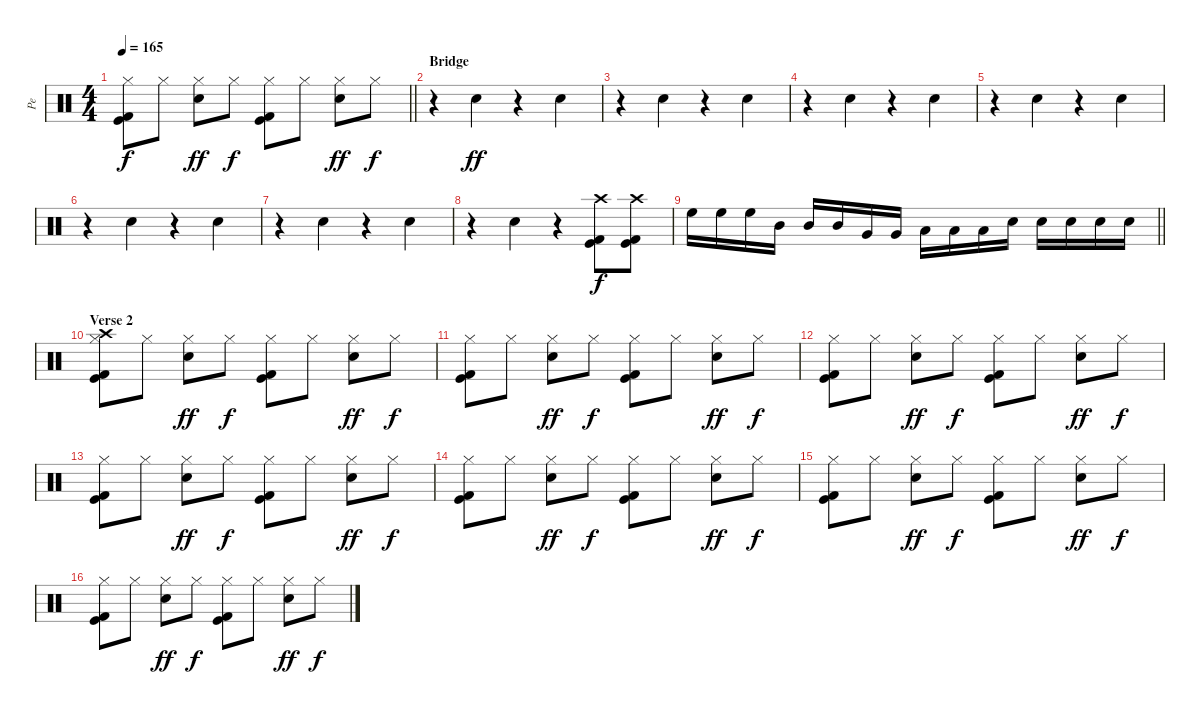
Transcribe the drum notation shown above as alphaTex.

\track ("Pe" "Pe") {instrument percussion}
\staff {score}
\articulation defaults
\ts (4 4)
\tempo 165
\clef neutral
\barLineRight lightlight
\ks c
("Kick (hit)" "Hi-Hat (closed)" "Kick (hit) 2").8{dy f} "Hi-Hat (closed)".8 ("Electric Snare (hit)" "Hi-Hat (closed)").8{dy ff} "Hi-Hat (closed)".8{dy f} ("Kick (hit)" "Hi-Hat (closed)" "Kick (hit) 2").8 "Hi-Hat (closed)".8 ("Electric Snare (hit)" "Hi-Hat (closed)").8{dy ff} "Hi-Hat (closed)".8{dy f} |
\section ("" "Bridge")
r.4 "Electric Snare (hit)".4{dy ff} r.4 "Electric Snare (hit)".4 |
r.4 "Electric Snare (hit)".4 r.4 "Electric Snare (hit)".4 |
r.4 "Electric Snare (hit)".4 r.4 "Electric Snare (hit)".4 |
r.4 "Electric Snare (hit)".4 r.4 "Electric Snare (hit)".4 |
r.4 "Electric Snare (hit)".4 r.4 "Electric Snare (hit)".4 |
r.4 "Electric Snare (hit)".4 r.4 "Electric Snare (hit)".4 |
r.4 "Electric Snare (hit)".4 r.4 ("Crash high (hit)" "Kick (hit)" "Kick (hit) 2").8{dy f} ("Crash high (hit)" "Kick (hit)" "Kick (hit) 2").8 |
\barLineRight lightlight "High Floor Tom (hit)".16 "High Floor Tom (hit)".16 "High Floor Tom (hit)".16 "Mid Tom (hit)".16 "Mid Tom (hit)".16 "Mid Tom (hit)".16 "Very Low Tom (hit)".16 "Very Low Tom (hit)".16 "Low Floor Tom (hit)".16 "Low Floor Tom (hit)".16 "Low Floor Tom (hit)".16 "Electric Snare (hit)".16 "Electric Snare (hit)".16 "Electric Snare (hit)".16 "Electric Snare (hit)".16 "Electric Snare (hit)".16
|
\section ("" "Verse 2")
("Kick (hit)" "Hi-Hat (closed)" "Kick (hit) 2" "Crash high (hit)").8 "Hi-Hat (closed)".8 ("Electric Snare (hit)" "Hi-Hat (closed)").8{dy ff} "Hi-Hat (closed)".8{dy f} ("Kick (hit)" "Hi-Hat (closed)" "Kick (hit) 2").8 "Hi-Hat (closed)".8 ("Electric Snare (hit)" "Hi-Hat (closed)").8{dy ff} "Hi-Hat (closed)".8{dy f} |
("Kick (hit)" "Hi-Hat (closed)" "Kick (hit) 2").8 "Hi-Hat (closed)".8 ("Electric Snare (hit)" "Hi-Hat (closed)").8{dy ff} "Hi-Hat (closed)".8{dy f} ("Kick (hit)" "Hi-Hat (closed)" "Kick (hit) 2").8 "Hi-Hat (closed)".8 ("Electric Snare (hit)" "Hi-Hat (closed)").8{dy ff} "Hi-Hat (closed)".8{dy f} |
("Kick (hit)" "Hi-Hat (closed)" "Kick (hit) 2").8 "Hi-Hat (closed)".8 ("Electric Snare (hit)" "Hi-Hat (closed)").8{dy ff} "Hi-Hat (closed)".8{dy f} ("Kick (hit)" "Hi-Hat (closed)" "Kick (hit) 2").8 "Hi-Hat (closed)".8 ("Electric Snare (hit)" "Hi-Hat (closed)").8{dy ff} "Hi-Hat (closed)".8{dy f} |
("Kick (hit)" "Hi-Hat (closed)" "Kick (hit) 2").8 "Hi-Hat (closed)".8 ("Electric Snare (hit)" "Hi-Hat (closed)").8{dy ff} "Hi-Hat (closed)".8{dy f} ("Kick (hit)" "Hi-Hat (closed)" "Kick (hit) 2").8 "Hi-Hat (closed)".8 ("Electric Snare (hit)" "Hi-Hat (closed)").8{dy ff} "Hi-Hat (closed)".8{dy f} |
("Kick (hit)" "Hi-Hat (closed)" "Kick (hit) 2").8 "Hi-Hat (closed)".8 ("Electric Snare (hit)" "Hi-Hat (closed)").8{dy ff} "Hi-Hat (closed)".8{dy f} ("Kick (hit)" "Hi-Hat (closed)" "Kick (hit) 2").8 "Hi-Hat (closed)".8 ("Electric Snare (hit)" "Hi-Hat (closed)").8{dy ff} "Hi-Hat (closed)".8{dy f} |
("Kick (hit)" "Hi-Hat (closed)" "Kick (hit) 2").8 "Hi-Hat (closed)".8 ("Electric Snare (hit)" "Hi-Hat (closed)").8{dy ff} "Hi-Hat (closed)".8{dy f} ("Kick (hit)" "Hi-Hat (closed)" "Kick (hit) 2").8 "Hi-Hat (closed)".8 ("Electric Snare (hit)" "Hi-Hat (closed)").8{dy ff} "Hi-Hat (closed)".8{dy f} |
("Kick (hit)" "Hi-Hat (closed)" "Kick (hit) 2").8 "Hi-Hat (closed)".8 ("Electric Snare (hit)" "Hi-Hat (closed)").8{dy ff} "Hi-Hat (closed)".8{dy f} ("Kick (hit)" "Hi-Hat (closed)" "Kick (hit) 2").8 "Hi-Hat (closed)".8 ("Electric Snare (hit)" "Hi-Hat (closed)").8{dy ff} "Hi-Hat (closed)".8{dy f}
